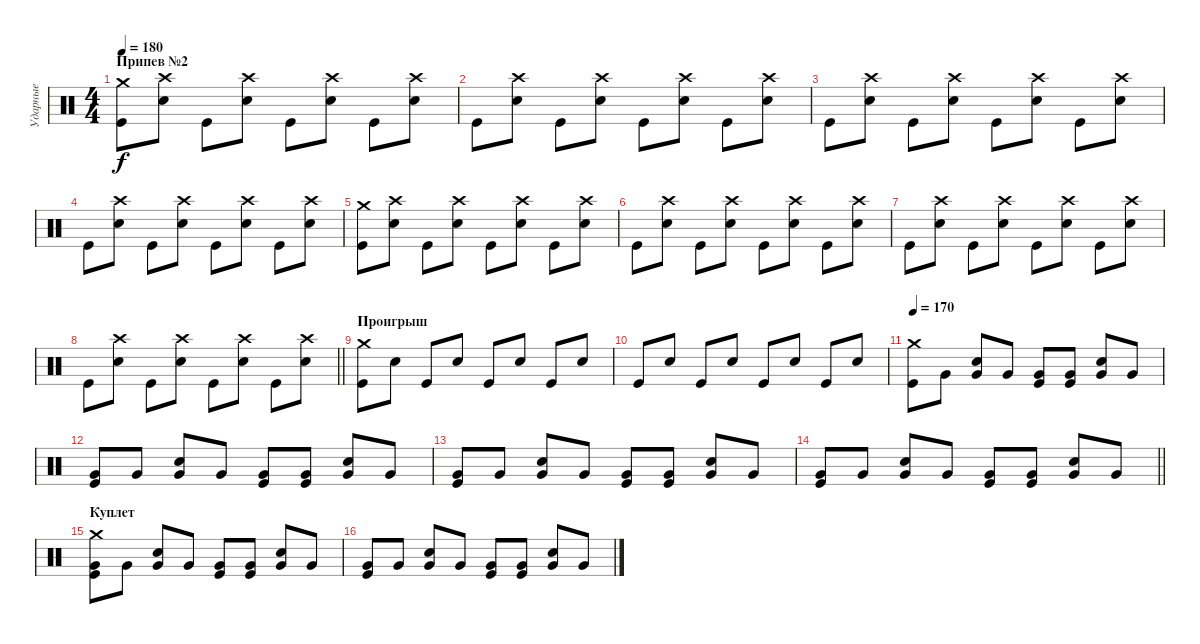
\track ("Ударные" "Ударные") {instrument percussion}
\staff {score}
\articulation defaults
\ts (4 4)
\section ("" "Припев №2")
\tempo 180
\clef neutral
\ks c
("Crash medium (hit)" "Kick (hit)").8{dy f} ("Crash high (hit)" "Electric Snare (hit)").8 "Kick (hit)".8 ("Crash high (hit)" "Electric Snare (hit)").8 "Kick (hit)".8 ("Crash high (hit)" "Electric Snare (hit)").8 "Kick (hit)".8 ("Crash high (hit)" "Electric Snare (hit)").8 |
"Kick (hit)".8 ("Crash high (hit)" "Electric Snare (hit)").8 "Kick (hit)".8 ("Crash high (hit)" "Electric Snare (hit)").8 "Kick (hit)".8 ("Crash high (hit)" "Electric Snare (hit)").8 "Kick (hit)".8 ("Crash high (hit)" "Electric Snare (hit)").8 |
"Kick (hit)".8 ("Crash high (hit)" "Electric Snare (hit)").8 "Kick (hit)".8 ("Crash high (hit)" "Electric Snare (hit)").8 "Kick (hit)".8 ("Crash high (hit)" "Electric Snare (hit)").8 "Kick (hit)".8 ("Crash high (hit)" "Electric Snare (hit)").8 |
"Kick (hit)".8 ("Crash high (hit)" "Electric Snare (hit)").8 "Kick (hit)".8 ("Crash high (hit)" "Electric Snare (hit)").8 "Kick (hit)".8 ("Crash high (hit)" "Electric Snare (hit)").8 "Kick (hit)".8 ("Crash high (hit)" "Electric Snare (hit)").8 |
("Crash medium (hit)" "Kick (hit)").8 ("Crash high (hit)" "Electric Snare (hit)").8 "Kick (hit)".8 ("Crash high (hit)" "Electric Snare (hit)").8 "Kick (hit)".8 ("Crash high (hit)" "Electric Snare (hit)").8 "Kick (hit)".8 ("Crash high (hit)" "Electric Snare (hit)").8 |
"Kick (hit)".8 ("Crash high (hit)" "Electric Snare (hit)").8 "Kick (hit)".8 ("Crash high (hit)" "Electric Snare (hit)").8 "Kick (hit)".8 ("Crash high (hit)" "Electric Snare (hit)").8 "Kick (hit)".8 ("Crash high (hit)" "Electric Snare (hit)").8 |
"Kick (hit)".8 ("Crash high (hit)" "Electric Snare (hit)").8 "Kick (hit)".8 ("Crash high (hit)" "Electric Snare (hit)").8 "Kick (hit)".8 ("Crash high (hit)" "Electric Snare (hit)").8 "Kick (hit)".8 ("Crash high (hit)" "Electric Snare (hit)").8 |
\barLineRight lightlight "Kick (hit)".8
("Crash high (hit)" "Electric Snare (hit)").8 "Kick (hit)".8 ("Crash high (hit)" "Electric Snare (hit)").8 "Kick (hit)".8 ("Crash high (hit)" "Electric Snare (hit)").8 "Kick (hit)".8 ("Crash high (hit)" "Electric Snare (hit)").8 |
\section ("" "Проигрыш")
("Crash medium (hit)" "Kick (hit)").8 "Electric Snare (hit)".8 "Kick (hit)".8 "Electric Snare (hit)".8 "Kick (hit)".8 "Electric Snare (hit)".8 "Kick (hit)".8 "Electric Snare (hit)".8 |
"Kick (hit)".8 "Electric Snare (hit)".8 "Kick (hit)".8 "Electric Snare (hit)".8 "Kick (hit)".8 "Electric Snare (hit)".8 "Kick (hit)".8 "Electric Snare (hit)".8 |
\tempo 170
("Crash medium (hit)" "Kick (hit)").8 "Very Low Tom (hit)".8 ("Electric Snare (hit)" "Very Low Tom (hit)").8 "Very Low Tom (hit)".8 ("Kick (hit)" "Very Low Tom (hit)").8 ("Kick (hit)" "Very Low Tom (hit)").8 ("Electric Snare (hit)" "Very Low Tom (hit)").8 "Very Low Tom (hit)".8 |
("Kick (hit)" "Very Low Tom (hit)").8 "Very Low Tom (hit)".8 ("Electric Snare (hit)" "Very Low Tom (hit)").8 "Very Low Tom (hit)".8 ("Kick (hit)" "Very Low Tom (hit)").8 ("Kick (hit)" "Very Low Tom (hit)").8 ("Electric Snare (hit)" "Very Low Tom (hit)").8 "Very Low Tom (hit)".8 |
("Kick (hit)" "Very Low Tom (hit)").8 "Very Low Tom (hit)".8 ("Electric Snare (hit)" "Very Low Tom (hit)").8 "Very Low Tom (hit)".8 ("Kick (hit)" "Very Low Tom (hit)").8 ("Kick (hit)" "Very Low Tom (hit)").8 ("Electric Snare (hit)" "Very Low Tom (hit)").8 "Very Low Tom (hit)".8 |
\barLineRight lightlight
("Kick (hit)" "Very Low Tom (hit)").8 "Very Low Tom (hit)".8 ("Electric Snare (hit)" "Very Low Tom (hit)").8 "Very Low Tom (hit)".8 ("Kick (hit)" "Very Low Tom (hit)").8 ("Kick (hit)" "Very Low Tom (hit)").8 ("Electric Snare (hit)" "Very Low Tom (hit)").8 "Very Low Tom (hit)".8 |
\section ("" "Куплет")
("Crash medium (hit)" "Kick (hit)" "Very Low Tom (hit)").8 "Very Low Tom (hit)".8 ("Electric Snare (hit)" "Very Low Tom (hit)").8 "Very Low Tom (hit)".8 ("Kick (hit)" "Very Low Tom (hit)").8 ("Kick (hit)" "Very Low Tom (hit)").8 ("Electric Snare (hit)" "Very Low Tom (hit)").8 "Very Low Tom (hit)".8 |
("Kick (hit)" "Very Low Tom (hit)").8 "Very Low Tom (hit)".8 ("Electric Snare (hit)" "Very Low Tom (hit)").8 "Very Low Tom (hit)".8 ("Kick (hit)" "Very Low Tom (hit)").8 ("Kick (hit)" "Very Low Tom (hit)").8 ("Electric Snare (hit)" "Very Low Tom (hit)").8 "Very Low Tom (hit)".8
